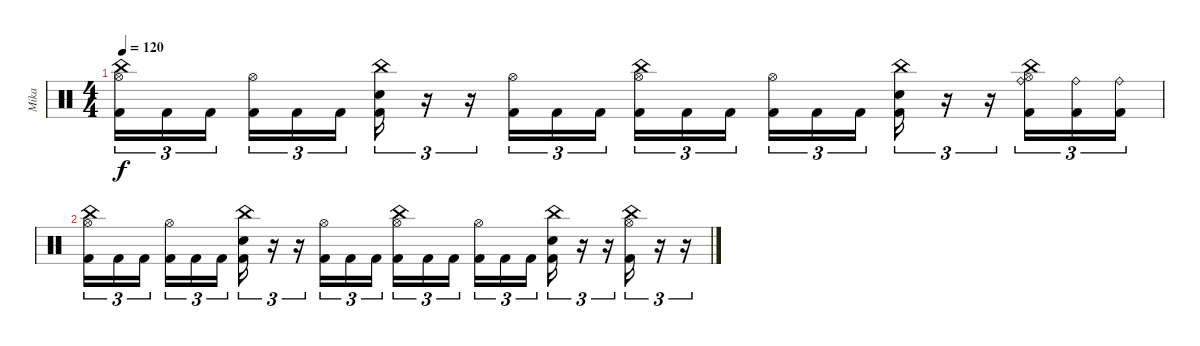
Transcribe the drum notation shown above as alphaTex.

\track ("Mika" "Mika") {instrument percussion}
\staff {score}
\articulation defaults
\ts (4 4)
\tempo 120
\clef neutral
\ks c
("China (hit)" "Hi-Hat (open)" "Kick (hit) 2").16{tu (3 2) dy f} "Kick (hit) 2".16{tu (3 2)} "Kick (hit) 2".16{tu (3 2) beam splitsecondary} ("Hi-Hat (open)" "Kick (hit) 2").16{tu (3 2)} "Kick (hit) 2".16{tu (3 2)} "Kick (hit) 2".16{tu (3 2)} ("Electric Snare (hit)" "China (hit)" "Kick (hit) 2").16{tu (3 2)} r.16{tu (3 2)} r.16{tu (3 2)} ("Hi-Hat (open)" "Kick (hit) 2").16{tu (3 2)} "Kick (hit) 2".16{tu (3 2)} "Kick (hit) 2".16{tu (3 2)} ("China (hit)" "Hi-Hat (open)" "Kick (hit) 2").16{tu (3 2)} "Kick (hit) 2".16{tu (3 2)} "Kick (hit) 2".16{tu (3 2) beam splitsecondary} ("Hi-Hat (open)" "Kick (hit) 2").16{tu (3 2)} "Kick (hit) 2".16{tu (3 2)} "Kick (hit) 2".16{tu (3 2)} ("Electric Snare (hit)" "China (hit)" "Kick (hit) 2").16{tu (3 2)} r.16{tu (3 2)} r.16{tu (3 2)} ("Ride (bell)" "China (hit)" "Hi-Hat (open)" "Kick (hit) 2").16{tu (3 2)} ("Ride (bell)" "Kick (hit) 2").16{tu (3 2)} ("Ride (bell)" "Kick (hit) 2").16{tu (3 2)} |
("China (hit)" "Hi-Hat (open)" "Kick (hit) 2").16{tu (3 2)} "Kick (hit) 2".16{tu (3 2)} "Kick (hit) 2".16{tu (3 2) beam splitsecondary} ("Hi-Hat (open)" "Kick (hit) 2").16{tu (3 2)} "Kick (hit) 2".16{tu (3 2)} "Kick (hit) 2".16{tu (3 2)} ("Electric Snare (hit)" "China (hit)" "Kick (hit) 2").16{tu (3 2)} r.16{tu (3 2)} r.16{tu (3 2)} ("Hi-Hat (open)" "Kick (hit) 2").16{tu (3 2)} "Kick (hit) 2".16{tu (3 2)} "Kick (hit) 2".16{tu (3 2)} ("China (hit)" "Hi-Hat (open)" "Kick (hit) 2").16{tu (3 2)} "Kick (hit) 2".16{tu (3 2)} "Kick (hit) 2".16{tu (3 2) beam splitsecondary} ("Hi-Hat (open)" "Kick (hit) 2").16{tu (3 2)} "Kick (hit) 2".16{tu (3 2)} "Kick (hit) 2".16{tu (3 2)} ("Electric Snare (hit)" "China (hit)" "Kick (hit) 2").16{tu (3 2)} r.16{tu (3 2)} r.16{tu (3 2)} ("China (hit)" "Hi-Hat (open)" "Kick (hit) 2").16{tu (3 2)} r.16{tu (3 2)} r.16{tu (3 2)}
